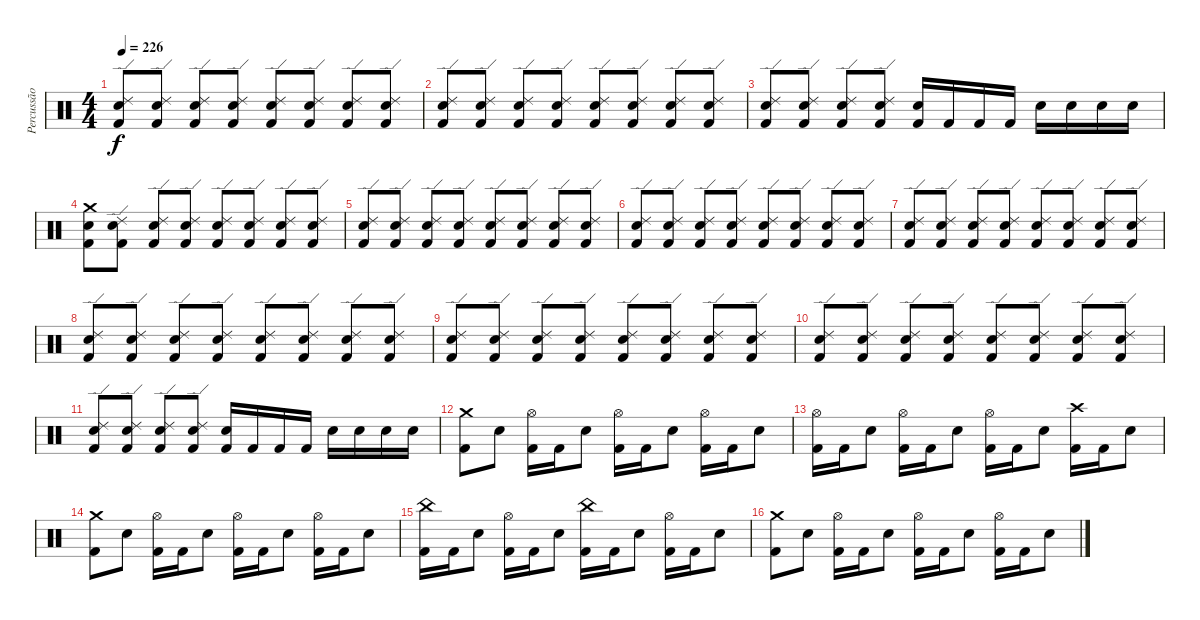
\track ("Percussão" "Percussão") {instrument percussion}
\staff {score}
\articulation defaults
\ts (4 4)
\tempo 226
\clef neutral
\ks c
("Ride (edge) 2" "Electric Snare (hit)" "Kick (hit) 2").8{dy f} ("Ride (edge) 2" "Electric Snare (hit)" "Kick (hit) 2").8 ("Ride (edge) 2" "Electric Snare (hit)" "Kick (hit) 2").8 ("Ride (edge) 2" "Electric Snare (hit)" "Kick (hit) 2").8 ("Ride (edge) 2" "Electric Snare (hit)" "Kick (hit) 2").8 ("Ride (edge) 2" "Electric Snare (hit)" "Kick (hit) 2").8 ("Ride (edge) 2" "Electric Snare (hit)" "Kick (hit) 2").8 ("Ride (edge) 2" "Electric Snare (hit)" "Kick (hit) 2").8 |
("Ride (edge) 2" "Electric Snare (hit)" "Kick (hit) 2").8 ("Ride (edge) 2" "Electric Snare (hit)" "Kick (hit) 2").8 ("Ride (edge) 2" "Electric Snare (hit)" "Kick (hit) 2").8 ("Ride (edge) 2" "Electric Snare (hit)" "Kick (hit) 2").8 ("Ride (edge) 2" "Electric Snare (hit)" "Kick (hit) 2").8 ("Ride (edge) 2" "Electric Snare (hit)" "Kick (hit) 2").8 ("Ride (edge) 2" "Electric Snare (hit)" "Kick (hit) 2").8 ("Ride (edge) 2" "Electric Snare (hit)" "Kick (hit) 2").8 |
("Ride (edge) 2" "Electric Snare (hit)" "Kick (hit) 2").8 ("Ride (edge) 2" "Electric Snare (hit)" "Kick (hit) 2").8 ("Ride (edge) 2" "Electric Snare (hit)" "Kick (hit) 2").8 ("Ride (edge) 2" "Electric Snare (hit)" "Kick (hit) 2").8 ("Electric Snare (hit)" "Kick (hit) 2").16 "Kick (hit) 2".16 "Kick (hit) 2".16 "Kick (hit) 2".16 "Electric Snare (hit)".16 "Electric Snare (hit)".16 "Electric Snare (hit)".16 "Electric Snare (hit)".16 |
("Crash medium (hit)" "Electric Snare (hit)" "Kick (hit) 2").8 ("Ride (edge) 2" "Electric Snare (hit)" "Kick (hit) 2").8 ("Ride (edge) 2" "Electric Snare (hit)" "Kick (hit) 2").8 ("Ride (edge) 2" "Electric Snare (hit)" "Kick (hit) 2").8 ("Ride (edge) 2" "Electric Snare (hit)" "Kick (hit) 2").8 ("Ride (edge) 2" "Electric Snare (hit)" "Kick (hit) 2").8 ("Ride (edge) 2" "Electric Snare (hit)" "Kick (hit) 2").8 ("Ride (edge) 2" "Electric Snare (hit)" "Kick (hit) 2").8 |
("Ride (edge) 2" "Electric Snare (hit)" "Kick (hit) 2").8 ("Ride (edge) 2" "Electric Snare (hit)" "Kick (hit) 2").8 ("Ride (edge) 2" "Electric Snare (hit)" "Kick (hit) 2").8 ("Ride (edge) 2" "Electric Snare (hit)" "Kick (hit) 2").8 ("Ride (edge) 2" "Electric Snare (hit)" "Kick (hit) 2").8 ("Ride (edge) 2" "Electric Snare (hit)" "Kick (hit) 2").8 ("Ride (edge) 2" "Electric Snare (hit)" "Kick (hit) 2").8 ("Ride (edge) 2" "Electric Snare (hit)" "Kick (hit) 2").8 |
("Ride (edge) 2" "Electric Snare (hit)" "Kick (hit) 2").8 ("Ride (edge) 2" "Electric Snare (hit)" "Kick (hit) 2").8 ("Ride (edge) 2" "Electric Snare (hit)" "Kick (hit) 2").8 ("Ride (edge) 2" "Electric Snare (hit)" "Kick (hit) 2").8 ("Ride (edge) 2" "Electric Snare (hit)" "Kick (hit) 2").8 ("Ride (edge) 2" "Electric Snare (hit)" "Kick (hit) 2").8 ("Ride (edge) 2" "Electric Snare (hit)" "Kick (hit) 2").8 ("Ride (edge) 2" "Electric Snare (hit)" "Kick (hit) 2").8 |
("Ride (edge) 2" "Electric Snare (hit)" "Kick (hit) 2").8 ("Ride (edge) 2" "Electric Snare (hit)" "Kick (hit) 2").8 ("Ride (edge) 2" "Electric Snare (hit)" "Kick (hit) 2").8 ("Ride (edge) 2" "Electric Snare (hit)" "Kick (hit) 2").8 ("Ride (edge) 2" "Electric Snare (hit)" "Kick (hit) 2").8 ("Ride (edge) 2" "Electric Snare (hit)" "Kick (hit) 2").8 ("Ride (edge) 2" "Electric Snare (hit)" "Kick (hit) 2").8 ("Ride (edge) 2" "Electric Snare (hit)" "Kick (hit) 2").8 |
("Ride (edge) 2" "Electric Snare (hit)" "Kick (hit) 2").8 ("Ride (edge) 2" "Electric Snare (hit)" "Kick (hit) 2").8 ("Ride (edge) 2" "Electric Snare (hit)" "Kick (hit) 2").8 ("Ride (edge) 2" "Electric Snare (hit)" "Kick (hit) 2").8 ("Ride (edge) 2" "Electric Snare (hit)" "Kick (hit) 2").8 ("Ride (edge) 2" "Electric Snare (hit)" "Kick (hit) 2").8 ("Ride (edge) 2" "Electric Snare (hit)" "Kick (hit) 2").8 ("Ride (edge) 2" "Electric Snare (hit)" "Kick (hit) 2").8 |
("Ride (edge) 2" "Electric Snare (hit)" "Kick (hit) 2").8 ("Ride (edge) 2" "Electric Snare (hit)" "Kick (hit) 2").8 ("Ride (edge) 2" "Electric Snare (hit)" "Kick (hit) 2").8 ("Ride (edge) 2" "Electric Snare (hit)" "Kick (hit) 2").8 ("Ride (edge) 2" "Electric Snare (hit)" "Kick (hit) 2").8 ("Ride (edge) 2" "Electric Snare (hit)" "Kick (hit) 2").8 ("Ride (edge) 2" "Electric Snare (hit)" "Kick (hit) 2").8 ("Ride (edge) 2" "Electric Snare (hit)" "Kick (hit) 2").8 |
("Ride (edge) 2" "Electric Snare (hit)" "Kick (hit) 2").8 ("Ride (edge) 2" "Electric Snare (hit)" "Kick (hit) 2").8 ("Ride (edge) 2" "Electric Snare (hit)" "Kick (hit) 2").8 ("Ride (edge) 2" "Electric Snare (hit)" "Kick (hit) 2").8 ("Ride (edge) 2" "Electric Snare (hit)" "Kick (hit) 2").8 ("Ride (edge) 2" "Electric Snare (hit)" "Kick (hit) 2").8 ("Ride (edge) 2" "Electric Snare (hit)" "Kick (hit) 2").8 ("Ride (edge) 2" "Electric Snare (hit)" "Kick (hit) 2").8 |
("Ride (edge) 2" "Electric Snare (hit)" "Kick (hit) 2").8 ("Ride (edge) 2" "Electric Snare (hit)" "Kick (hit) 2").8 ("Ride (edge) 2" "Electric Snare (hit)" "Kick (hit) 2").8 ("Ride (edge) 2" "Electric Snare (hit)" "Kick (hit) 2").8 ("Electric Snare (hit)" "Kick (hit) 2").16 "Kick (hit) 2".16 "Kick (hit) 2".16 "Kick (hit) 2".16 "Electric Snare (hit)".16 "Electric Snare (hit)".16 "Electric Snare (hit)".16 "Electric Snare (hit)".16 |
("Crash medium (hit)" "Kick (hit) 2").8 "Electric Snare (hit)".8 ("Hi-Hat (open)" "Kick (hit) 2").16 "Kick (hit) 2".16 "Electric Snare (hit)".8 ("Hi-Hat (open)" "Kick (hit) 2").16 "Kick (hit) 2".16 "Electric Snare (hit)".8 ("Hi-Hat (open)" "Kick (hit) 2").16 "Kick (hit) 2".16 "Electric Snare (hit)".8 |
("Hi-Hat (open)" "Kick (hit) 2").16 "Kick (hit) 2".16 "Electric Snare (hit)".8 ("Hi-Hat (open)" "Kick (hit) 2").16 "Kick (hit) 2".16 "Electric Snare (hit)".8 ("Hi-Hat (open)" "Kick (hit) 2").16 "Kick (hit) 2".16 "Electric Snare (hit)".8 ("Crash high (hit)" "Kick (hit) 2").16 "Kick (hit) 2".16 "Electric Snare (hit)".8 |
("Crash medium (hit)" "Kick (hit) 2").8 "Electric Snare (hit)".8 ("Hi-Hat (open)" "Kick (hit) 2").16 "Kick (hit) 2".16 "Electric Snare (hit)".8 ("Hi-Hat (open)" "Kick (hit) 2").16 "Kick (hit) 2".16 "Electric Snare (hit)".8 ("Hi-Hat (open)" "Kick (hit) 2").16 "Kick (hit) 2".16 "Electric Snare (hit)".8 |
("China (hit)" "Kick (hit) 2").16 "Kick (hit) 2".16 "Electric Snare (hit)".8 ("Hi-Hat (open)" "Kick (hit) 2").16 "Kick (hit) 2".16 "Electric Snare (hit)".8 ("China (hit)" "Kick (hit) 2").16 "Kick (hit) 2".16 "Electric Snare (hit)".8 ("Hi-Hat (open)" "Kick (hit) 2").16 "Kick (hit) 2".16 "Electric Snare (hit)".8 |
("Crash medium (hit)" "Kick (hit) 2").8 "Electric Snare (hit)".8 ("Hi-Hat (open)" "Kick (hit) 2").16 "Kick (hit) 2".16 "Electric Snare (hit)".8 ("Hi-Hat (open)" "Kick (hit) 2").16 "Kick (hit) 2".16 "Electric Snare (hit)".8 ("Hi-Hat (open)" "Kick (hit) 2").16 "Kick (hit) 2".16 "Electric Snare (hit)".8
